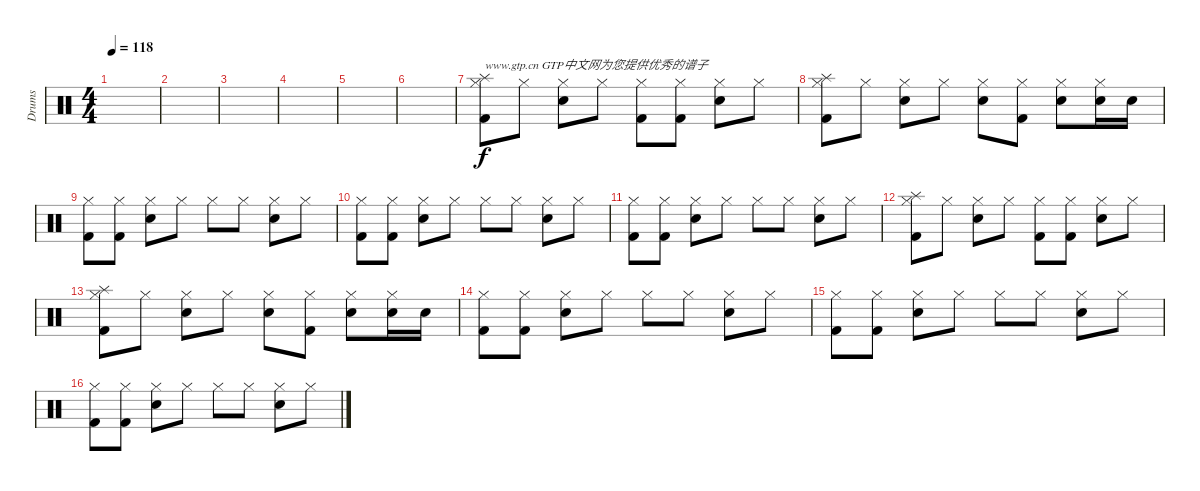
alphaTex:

\track ("Drums" "Drums") {instrument percussion}
\staff {score}
\articulation defaults
\ts (4 4)
\tempo 118
\clef neutral
\ks c
|
|
|
|
|
|
("Splash (hit)" "Hi-Hat (closed)" "Kick (hit) 2").8{txt "www.gtp.cn GTP中文网为您提供优秀的谱子"} "Hi-Hat (closed)".8 ("Hi-Hat (closed)" "Snare (hit) 2").8 "Hi-Hat (closed)".8 ("Hi-Hat (closed)" "Kick (hit) 2").8 ("Hi-Hat (closed)" "Kick (hit) 2").8 ("Hi-Hat (closed)" "Snare (hit) 2").8 "Hi-Hat (closed)".8 |
("Splash (hit)" "Hi-Hat (closed)" "Kick (hit) 2").8 "Hi-Hat (closed)".8 ("Hi-Hat (closed)" "Snare (hit) 2").8 "Hi-Hat (closed)".8 ("Hi-Hat (closed)" "Snare (hit) 2").8 ("Hi-Hat (closed)" "Kick (hit) 2").8 ("Hi-Hat (closed)" "Snare (hit) 2").8 ("Hi-Hat (closed)" "Snare (hit) 2").16 "Snare (hit) 2".16 |
("Hi-Hat (closed)" "Kick (hit) 2").8 ("Hi-Hat (closed)" "Kick (hit) 2").8 ("Hi-Hat (closed)" "Snare (hit) 2").8 "Hi-Hat (closed)".8 "Hi-Hat (closed)".8 "Hi-Hat (closed)".8 ("Hi-Hat (closed)" "Snare (hit) 2").8 "Hi-Hat (closed)".8 |
("Hi-Hat (closed)" "Kick (hit) 2").8 ("Hi-Hat (closed)" "Kick (hit) 2").8 ("Hi-Hat (closed)" "Snare (hit) 2").8 "Hi-Hat (closed)".8 "Hi-Hat (closed)".8 "Hi-Hat (closed)".8 ("Hi-Hat (closed)" "Snare (hit) 2").8 "Hi-Hat (closed)".8 |
("Hi-Hat (closed)" "Kick (hit) 2").8 ("Hi-Hat (closed)" "Kick (hit) 2").8 ("Hi-Hat (closed)" "Snare (hit) 2").8 "Hi-Hat (closed)".8 "Hi-Hat (closed)".8 "Hi-Hat (closed)".8 ("Hi-Hat (closed)" "Snare (hit) 2").8 "Hi-Hat (closed)".8 |
("Splash (hit)" "Hi-Hat (closed)" "Kick (hit) 2").8 "Hi-Hat (closed)".8 ("Hi-Hat (closed)" "Snare (hit) 2").8 "Hi-Hat (closed)".8 ("Hi-Hat (closed)" "Kick (hit) 2").8 ("Hi-Hat (closed)" "Kick (hit) 2").8 ("Hi-Hat (closed)" "Snare (hit) 2").8 "Hi-Hat (closed)".8 |
("Splash (hit)" "Hi-Hat (closed)" "Kick (hit) 2").8 "Hi-Hat (closed)".8 ("Hi-Hat (closed)" "Snare (hit) 2").8 "Hi-Hat (closed)".8 ("Hi-Hat (closed)" "Snare (hit) 2").8 ("Hi-Hat (closed)" "Kick (hit) 2").8 ("Hi-Hat (closed)" "Snare (hit) 2").8 ("Hi-Hat (closed)" "Snare (hit) 2").16 "Snare (hit) 2".16 |
("Hi-Hat (closed)" "Kick (hit) 2").8 ("Hi-Hat (closed)" "Kick (hit) 2").8 ("Hi-Hat (closed)" "Snare (hit) 2").8 "Hi-Hat (closed)".8 "Hi-Hat (closed)".8 "Hi-Hat (closed)".8 ("Hi-Hat (closed)" "Snare (hit) 2").8 "Hi-Hat (closed)".8 |
("Hi-Hat (closed)" "Kick (hit) 2").8 ("Hi-Hat (closed)" "Kick (hit) 2").8 ("Hi-Hat (closed)" "Snare (hit) 2").8 "Hi-Hat (closed)".8 "Hi-Hat (closed)".8 "Hi-Hat (closed)".8 ("Hi-Hat (closed)" "Snare (hit) 2").8 "Hi-Hat (closed)".8 |
("Hi-Hat (closed)" "Kick (hit) 2").8 ("Hi-Hat (closed)" "Kick (hit) 2").8 ("Hi-Hat (closed)" "Snare (hit) 2").8 "Hi-Hat (closed)".8 "Hi-Hat (closed)".8 "Hi-Hat (closed)".8 ("Hi-Hat (closed)" "Snare (hit) 2").8 "Hi-Hat (closed)".8
